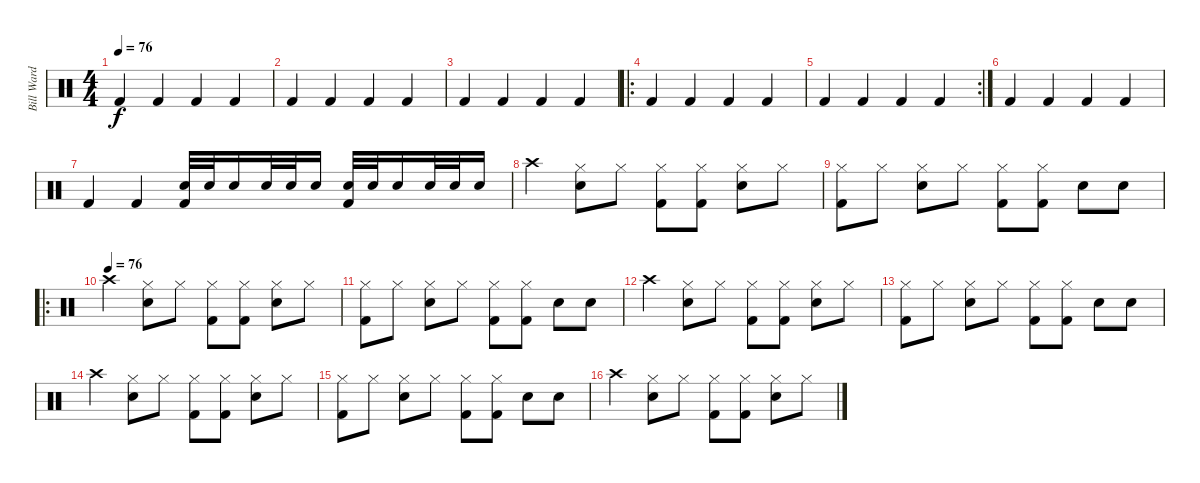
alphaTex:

\track ("Bill Ward" "Bill Ward") {instrument percussion}
\staff {score}
\articulation defaults
\ts (4 4)
\tempo 76
\clef neutral
\ks c "Kick (hit) 2".4{dy f} "Kick (hit) 2".4 "Kick (hit) 2".4 "Kick (hit) 2".4
|
"Kick (hit) 2".4 "Kick (hit) 2".4 "Kick (hit) 2".4 "Kick (hit) 2".4 |
"Kick (hit) 2".4 "Kick (hit) 2".4 "Kick (hit) 2".4 "Kick (hit) 2".4 |
\ro "Kick (hit) 2".4 "Kick (hit) 2".4 "Kick (hit) 2".4 "Kick (hit) 2".4
|
\rc 2 "Kick (hit) 2".4 "Kick (hit) 2".4 "Kick (hit) 2".4 "Kick (hit) 2".4
|
"Kick (hit) 2".4 "Kick (hit) 2".4 "Kick (hit) 2".4 "Kick (hit) 2".4 |
"Kick (hit) 2".4 "Kick (hit) 2".4 ("Snare (hit) 2" "Kick (hit) 2").32 "Snare (hit) 2".32 "Snare (hit) 2".16 "Snare (hit) 2".32 "Snare (hit) 2".32 "Snare (hit) 2".16 ("Snare (hit) 2" "Kick (hit) 2").32 "Snare (hit) 2".32 "Snare (hit) 2".16 "Snare (hit) 2".32 "Snare (hit) 2".32 "Snare (hit) 2".16 |
"Crash high (hit)".4 ("Snare (hit) 2" "Hi-Hat (closed)").8 "Hi-Hat (closed)".8 ("Kick (hit) 2" "Hi-Hat (closed)").8 ("Kick (hit) 2" "Hi-Hat (closed)").8 ("Snare (hit) 2" "Hi-Hat (closed)").8 "Hi-Hat (closed)".8 |
("Kick (hit) 2" "Hi-Hat (closed)").8 "Hi-Hat (closed)".8 ("Snare (hit) 2" "Hi-Hat (closed)").8 "Hi-Hat (closed)".8 ("Kick (hit) 2" "Hi-Hat (closed)").8 ("Kick (hit) 2" "Hi-Hat (closed)").8 "Snare (hit) 2".8 "Snare (hit) 2".8 |
\ro
\tempo (76)
"Crash high (hit)".4 ("Snare (hit) 2" "Hi-Hat (closed)").8 "Hi-Hat (closed)".8 ("Kick (hit) 2" "Hi-Hat (closed)").8 ("Kick (hit) 2" "Hi-Hat (closed)").8 ("Snare (hit) 2" "Hi-Hat (closed)").8 "Hi-Hat (closed)".8 |
("Kick (hit) 2" "Hi-Hat (closed)").8 "Hi-Hat (closed)".8 ("Snare (hit) 2" "Hi-Hat (closed)").8 "Hi-Hat (closed)".8 ("Kick (hit) 2" "Hi-Hat (closed)").8 ("Kick (hit) 2" "Hi-Hat (closed)").8 "Snare (hit) 2".8 "Snare (hit) 2".8 |
"Crash high (hit)".4 ("Snare (hit) 2" "Hi-Hat (closed)").8 "Hi-Hat (closed)".8 ("Kick (hit) 2" "Hi-Hat (closed)").8 ("Kick (hit) 2" "Hi-Hat (closed)").8 ("Snare (hit) 2" "Hi-Hat (closed)").8 "Hi-Hat (closed)".8 |
("Kick (hit) 2" "Hi-Hat (closed)").8 "Hi-Hat (closed)".8 ("Snare (hit) 2" "Hi-Hat (closed)").8 "Hi-Hat (closed)".8 ("Kick (hit) 2" "Hi-Hat (closed)").8 ("Kick (hit) 2" "Hi-Hat (closed)").8 "Snare (hit) 2".8 "Snare (hit) 2".8 |
"Crash high (hit)".4 ("Snare (hit) 2" "Hi-Hat (closed)").8 "Hi-Hat (closed)".8 ("Kick (hit) 2" "Hi-Hat (closed)").8 ("Kick (hit) 2" "Hi-Hat (closed)").8 ("Snare (hit) 2" "Hi-Hat (closed)").8 "Hi-Hat (closed)".8 |
("Kick (hit) 2" "Hi-Hat (closed)").8 "Hi-Hat (closed)".8 ("Snare (hit) 2" "Hi-Hat (closed)").8 "Hi-Hat (closed)".8 ("Kick (hit) 2" "Hi-Hat (closed)").8 ("Kick (hit) 2" "Hi-Hat (closed)").8 "Snare (hit) 2".8 "Snare (hit) 2".8 |
"Crash high (hit)".4 ("Snare (hit) 2" "Hi-Hat (closed)").8 "Hi-Hat (closed)".8 ("Kick (hit) 2" "Hi-Hat (closed)").8 ("Kick (hit) 2" "Hi-Hat (closed)").8 ("Snare (hit) 2" "Hi-Hat (closed)").8 "Hi-Hat (closed)".8
